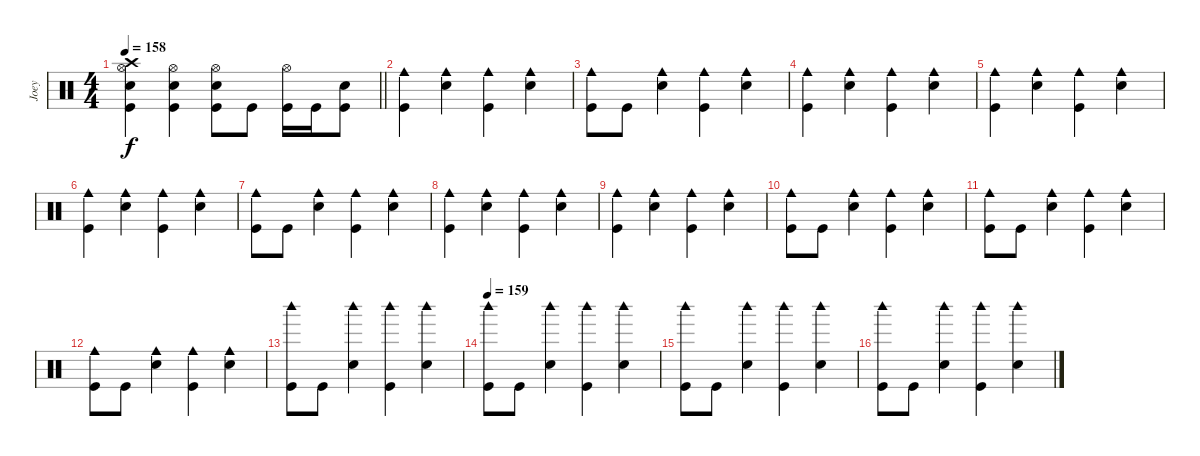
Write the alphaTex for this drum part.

\track ("Joey" "Joey") {instrument percussion}
\staff {score}
\articulation defaults
\ts (4 4)
\tempo 158
\clef neutral
\barLineRight lightlight
\ks c
("Crash high (hit)" "Electric Snare (hit)" "Kick (hit)" "Hi-Hat (open)").4{dy f} ("Hi-Hat (open)" "Electric Snare (hit)" "Kick (hit)").4 ("Hi-Hat (open)" "Electric Snare (hit)" "Kick (hit)").8 "Kick (hit)".8 ("Hi-Hat (open)" "Kick (hit)").16 "Kick (hit)".16 ("Electric Snare (hit)" "Kick (hit)").8 |
("Cowbell medium (hit)" "Kick (hit)").4 ("Cowbell medium (hit)" "Electric Snare (hit)").4 ("Cowbell medium (hit)" "Kick (hit)").4 ("Cowbell medium (hit)" "Electric Snare (hit)").4 |
("Cowbell medium (hit)" "Kick (hit)").8 "Kick (hit)".8 ("Cowbell medium (hit)" "Electric Snare (hit)").4 ("Cowbell medium (hit)" "Kick (hit)").4 ("Cowbell medium (hit)" "Electric Snare (hit)").4 |
("Cowbell medium (hit)" "Kick (hit)").4 ("Cowbell medium (hit)" "Electric Snare (hit)").4 ("Cowbell medium (hit)" "Kick (hit)").4 ("Cowbell medium (hit)" "Electric Snare (hit)").4 |
("Cowbell medium (hit)" "Kick (hit)").4 ("Cowbell medium (hit)" "Electric Snare (hit)").4 ("Cowbell medium (hit)" "Kick (hit)").4 ("Cowbell medium (hit)" "Electric Snare (hit)").4 |
("Cowbell medium (hit)" "Kick (hit)").4 ("Cowbell medium (hit)" "Electric Snare (hit)").4 ("Cowbell medium (hit)" "Kick (hit)").4 ("Cowbell medium (hit)" "Electric Snare (hit)").4 |
("Cowbell medium (hit)" "Kick (hit)").8 "Kick (hit)".8 ("Cowbell medium (hit)" "Electric Snare (hit)").4 ("Cowbell medium (hit)" "Kick (hit)").4 ("Cowbell medium (hit)" "Electric Snare (hit)").4 |
("Cowbell medium (hit)" "Kick (hit)").4 ("Cowbell medium (hit)" "Electric Snare (hit)").4 ("Cowbell medium (hit)" "Kick (hit)").4 ("Cowbell medium (hit)" "Electric Snare (hit)").4 |
("Cowbell medium (hit)" "Kick (hit)").4 ("Cowbell medium (hit)" "Electric Snare (hit)").4 ("Cowbell medium (hit)" "Kick (hit)").4 ("Cowbell medium (hit)" "Electric Snare (hit)").4 |
("Cowbell medium (hit)" "Kick (hit)").8 "Kick (hit)".8 ("Cowbell medium (hit)" "Electric Snare (hit)").4 ("Cowbell medium (hit)" "Kick (hit)").4 ("Cowbell medium (hit)" "Electric Snare (hit)").4 |
("Cowbell medium (hit)" "Kick (hit)").8 "Kick (hit)".8 ("Cowbell medium (hit)" "Electric Snare (hit)").4 ("Cowbell medium (hit)" "Kick (hit)").4 ("Cowbell medium (hit)" "Electric Snare (hit)").4 |
("Cowbell medium (hit)" "Kick (hit)").8 "Kick (hit)".8 ("Cowbell medium (hit)" "Electric Snare (hit)").4 ("Cowbell medium (hit)" "Kick (hit)").4 ("Cowbell medium (hit)" "Electric Snare (hit)").4 |
("Woodblock high (hit)" "Kick (hit)").8 "Kick (hit)".8 ("Woodblock high (hit)" "Electric Snare (hit)").4 ("Woodblock high (hit)" "Kick (hit)").4 ("Woodblock high (hit)" "Electric Snare (hit)").4 |
\tempo 159
("Woodblock high (hit)" "Kick (hit)").8 "Kick (hit)".8 ("Woodblock high (hit)" "Electric Snare (hit)").4 ("Woodblock high (hit)" "Kick (hit)").4 ("Woodblock high (hit)" "Electric Snare (hit)").4 |
("Woodblock high (hit)" "Kick (hit)").8 "Kick (hit)".8 ("Woodblock high (hit)" "Electric Snare (hit)").4 ("Woodblock high (hit)" "Kick (hit)").4 ("Woodblock high (hit)" "Electric Snare (hit)").4 |
("Woodblock high (hit)" "Kick (hit)").8 "Kick (hit)".8 ("Woodblock high (hit)" "Electric Snare (hit)").4 ("Woodblock high (hit)" "Kick (hit)").4 ("Woodblock high (hit)" "Electric Snare (hit)").4
